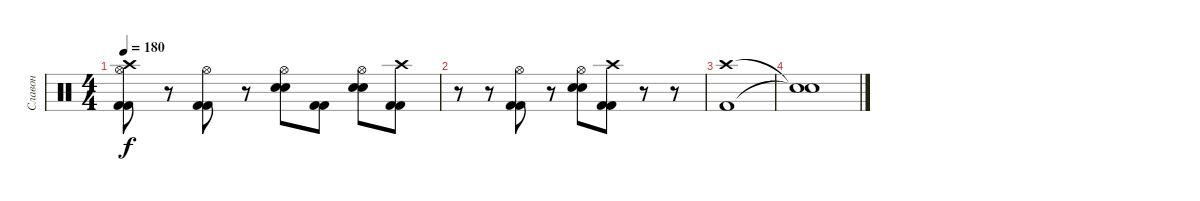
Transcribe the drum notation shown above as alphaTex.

\track ("Славон" "Славон") {instrument percussion}
\staff {score}
\articulation defaults
\ts (4 4)
\tempo 180
\clef neutral
\ks c
("Hi-Hat (open)" "Kick (hit) 2" "Kick (hit) 2" "Crash high (hit)").8{dy f} r.8 ("Hi-Hat (open)" "Kick (hit) 2" "Kick (hit) 2").8 r.8 ("Hi-Hat (open)" "Electric Snare (hit)" "Electric Snare (hit)").8 ("Kick (hit) 2" "Kick (hit) 2").8 ("Hi-Hat (open)" "Electric Snare (hit)" "Electric Snare (hit)").8 ("Kick (hit) 2" "Kick (hit) 2" "Crash high (hit)").8 |
r.8 r.8 ("Hi-Hat (open)" "Kick (hit) 2" "Kick (hit) 2").8 r.8 ("Hi-Hat (open)" "Electric Snare (hit)" "Electric Snare (hit)").8 ("Kick (hit) 2" "Kick (hit) 2" "Crash high (hit)").8 r.8 r.8 |
("Crash high (hit)" "Kick (hit) 2").1 |
("Snare (hit)"{t} "Snare (hit)"{t}).1
